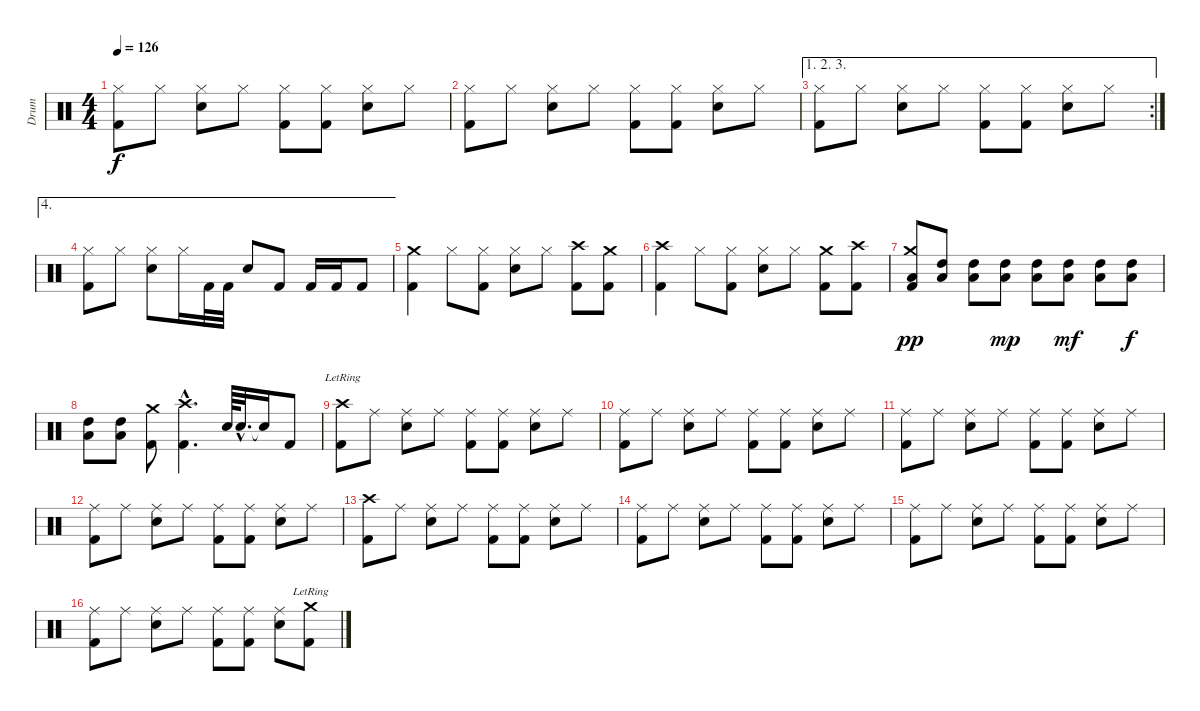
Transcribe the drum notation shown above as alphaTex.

\track ("Drum" "Drum") {instrument percussion}
\staff {score}
\articulation defaults
\ts (4 4)
\tempo 126
\clef neutral
\ks c
("Hi-Hat (closed)" "Kick (hit) 2").8{dy f} "Hi-Hat (closed)".8 ("Hi-Hat (closed)" "Snare (hit) 2").8 "Hi-Hat (closed)".8 ("Hi-Hat (closed)" "Kick (hit) 2").8 ("Hi-Hat (closed)" "Kick (hit) 2").8 ("Hi-Hat (closed)" "Snare (hit) 2").8 "Hi-Hat (closed)".8 |
("Hi-Hat (closed)" "Kick (hit) 2").8 "Hi-Hat (closed)".8 ("Hi-Hat (closed)" "Snare (hit) 2").8 "Hi-Hat (closed)".8 ("Hi-Hat (closed)" "Kick (hit) 2").8 ("Hi-Hat (closed)" "Kick (hit) 2").8 ("Hi-Hat (closed)" "Snare (hit) 2").8 "Hi-Hat (closed)".8 |
\ae (1 2 3)
\rc 2
("Hi-Hat (closed)" "Kick (hit) 2").8 "Hi-Hat (closed)".8 ("Hi-Hat (closed)" "Snare (hit) 2").8 "Hi-Hat (closed)".8 ("Hi-Hat (closed)" "Kick (hit) 2").8 ("Hi-Hat (closed)" "Kick (hit) 2").8 ("Hi-Hat (closed)" "Snare (hit) 2").8 "Hi-Hat (closed)".8 |
\ae 4
("Hi-Hat (closed)" "Kick (hit) 2").8 "Hi-Hat (closed)".8 ("Hi-Hat (closed)" "Snare (hit) 2").8 "Hi-Hat (closed)".16 "Kick (hit) 2".32 "Kick (hit) 2".32 "Snare (hit) 2".8 "Kick (hit) 2".8 "Kick (hit) 2".16 "Kick (hit) 2".16 "Kick (hit) 2".8 |
("Crash medium (hit)" "Kick (hit) 2").4 "Hi-Hat (closed)".8 ("Hi-Hat (closed)" "Kick (hit) 2").8 ("Hi-Hat (closed)" "Snare (hit) 2").8 "Hi-Hat (closed)".8 ("Crash high (hit)" "Kick (hit) 2").8 ("Crash medium (hit)" "Kick (hit) 2").8 |
("Crash high (hit)" "Kick (hit) 2").4 "Hi-Hat (closed)".8 ("Hi-Hat (closed)" "Kick (hit) 2").8 ("Hi-Hat (closed)" "Snare (hit) 2").8 "Hi-Hat (closed)".8 ("Crash medium (hit)" "Kick (hit) 2").8 ("Crash high (hit)" "Kick (hit) 2").8 |
("Crash medium (hit)" "Low Tom (hit)" "Kick (hit) 2").8{dy pp} ("High Tom (hit)" "Low Tom (hit)").8 ("High Tom (hit)" "Low Tom (hit)").8 ("High Tom (hit)" "Low Tom (hit)").8{dy mp} ("High Tom (hit)" "Low Tom (hit)").8 ("High Tom (hit)" "Low Tom (hit)").8{dy mf} ("High Tom (hit)" "Low Tom (hit)").8 ("High Tom (hit)" "Low Tom (hit)").8{dy f} |
("High Tom (hit)" "Low Tom (hit)").8 ("High Tom (hit)" "Low Tom (hit)").8 ("Crash medium (hit)" "Kick (hit) 2").8 ("Crash high (hit)"{hac} "Kick (hit) 2"{hac}).4{d} "Snare (hit) 2".64 "Snare (hit) 2"{hac}.32{d} "Snare (hit) 2"{t}.16 "Kick (hit) 2".8 |
("Crash high (hit)"{lr} "Kick (hit) 2").8 "Ride (middle)".8 ("Ride (middle)" "Snare (hit) 2").8 "Ride (middle)".8 ("Ride (middle)" "Kick (hit) 2").8 ("Ride (middle)" "Kick (hit) 2").8 ("Ride (middle)" "Snare (hit) 2").8 "Ride (middle)".8 |
("Ride (middle)" "Kick (hit) 2").8 "Ride (middle)".8 ("Ride (middle)" "Snare (hit) 2").8 "Ride (middle)".8 ("Ride (middle)" "Kick (hit) 2").8 ("Ride (middle)" "Kick (hit) 2").8 ("Ride (middle)" "Snare (hit) 2").8 "Ride (middle)".8 |
("Ride (middle)" "Kick (hit) 2").8 "Ride (middle)".8 ("Ride (middle)" "Snare (hit) 2").8 "Ride (middle)".8 ("Ride (middle)" "Kick (hit) 2").8 ("Ride (middle)" "Kick (hit) 2").8 ("Ride (middle)" "Snare (hit) 2").8 "Ride (middle)".8 |
("Ride (middle)" "Kick (hit) 2").8 "Ride (middle)".8 ("Ride (middle)" "Snare (hit) 2").8 "Ride (middle)".8 ("Ride (middle)" "Kick (hit) 2").8 ("Ride (middle)" "Kick (hit) 2").8 ("Ride (middle)" "Snare (hit) 2").8 "Ride (middle)".8 |
("Crash high (hit)" "Kick (hit) 2").8 "Ride (middle)".8 ("Ride (middle)" "Snare (hit) 2").8 "Ride (middle)".8 ("Ride (middle)" "Kick (hit) 2").8 ("Ride (middle)" "Kick (hit) 2").8 ("Ride (middle)" "Snare (hit) 2").8 "Ride (middle)".8 |
("Ride (middle)" "Kick (hit) 2").8 "Ride (middle)".8 ("Ride (middle)" "Snare (hit) 2").8 "Ride (middle)".8 ("Ride (middle)" "Kick (hit) 2").8 ("Ride (middle)" "Kick (hit) 2").8 ("Ride (middle)" "Snare (hit) 2").8 "Ride (middle)".8 |
("Ride (middle)" "Kick (hit) 2").8 "Ride (middle)".8 ("Ride (middle)" "Snare (hit) 2").8 "Ride (middle)".8 ("Ride (middle)" "Kick (hit) 2").8 ("Ride (middle)" "Kick (hit) 2").8 ("Ride (middle)" "Snare (hit) 2").8 "Ride (middle)".8 |
("Ride (middle)" "Kick (hit) 2").8 "Ride (middle)".8 ("Ride (middle)" "Snare (hit) 2").8 "Ride (middle)".8 ("Ride (middle)" "Kick (hit) 2").8 ("Ride (middle)" "Kick (hit) 2").8 ("Ride (middle)" "Snare (hit) 2").8 ("Crash medium (hit)"{lr} "Kick (hit) 2").8
